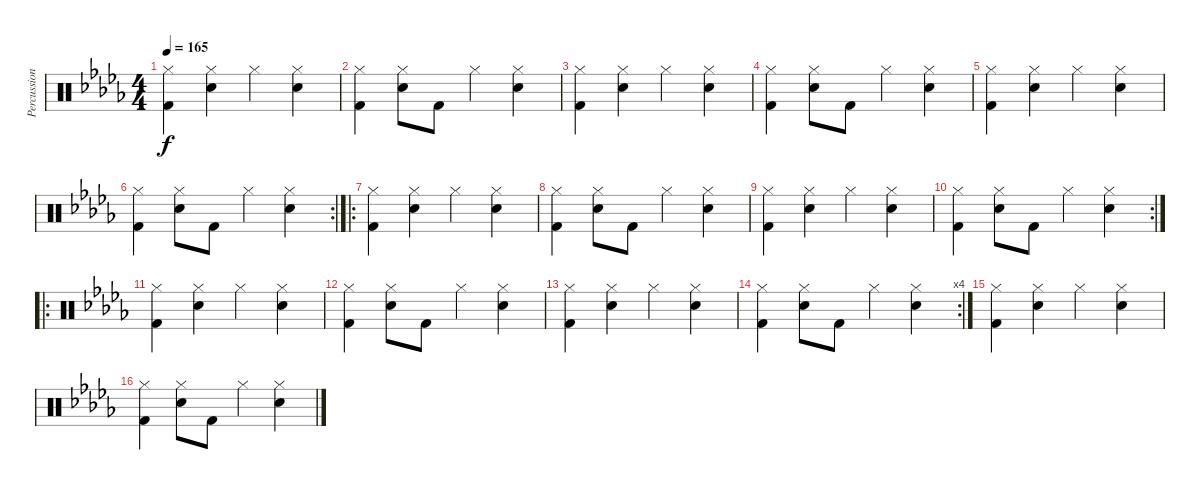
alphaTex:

\track ("Percussion" "Percussion") {instrument percussion}
\staff {score}
\articulation defaults
\ts (4 4)
\tempo 165
\clef neutral
\ks db
("Hi-Hat (closed)" "Kick (hit) 2").4{dy f} ("Hi-Hat (closed)" "Snare (hit) 2").4 "Hi-Hat (closed)".4 ("Hi-Hat (closed)" "Snare (hit) 2").4 |
("Hi-Hat (closed)" "Kick (hit) 2").4 ("Hi-Hat (closed)" "Snare (hit) 2").8 "Kick (hit) 2".8 "Hi-Hat (closed)".4 ("Hi-Hat (closed)" "Snare (hit) 2").4 |
("Hi-Hat (closed)" "Kick (hit) 2").4 ("Hi-Hat (closed)" "Snare (hit) 2").4 "Hi-Hat (closed)".4 ("Hi-Hat (closed)" "Snare (hit) 2").4 |
("Hi-Hat (closed)" "Kick (hit) 2").4 ("Hi-Hat (closed)" "Snare (hit) 2").8 "Kick (hit) 2".8 "Hi-Hat (closed)".4 ("Hi-Hat (closed)" "Snare (hit) 2").4 |
("Hi-Hat (closed)" "Kick (hit) 2").4 ("Hi-Hat (closed)" "Snare (hit) 2").4 "Hi-Hat (closed)".4 ("Hi-Hat (closed)" "Snare (hit) 2").4 |
\rc 2
("Hi-Hat (closed)" "Kick (hit) 2").4 ("Hi-Hat (closed)" "Snare (hit) 2").8 "Kick (hit) 2".8 "Hi-Hat (closed)".4 ("Hi-Hat (closed)" "Snare (hit) 2").4 |
\ro
("Hi-Hat (closed)" "Kick (hit) 2").4 ("Hi-Hat (closed)" "Snare (hit) 2").4 "Hi-Hat (closed)".4 ("Hi-Hat (closed)" "Snare (hit) 2").4 |
("Hi-Hat (closed)" "Kick (hit) 2").4 ("Hi-Hat (closed)" "Snare (hit) 2").8 "Kick (hit) 2".8 "Hi-Hat (closed)".4 ("Hi-Hat (closed)" "Snare (hit) 2").4 |
("Hi-Hat (closed)" "Kick (hit) 2").4 ("Hi-Hat (closed)" "Snare (hit) 2").4 "Hi-Hat (closed)".4 ("Hi-Hat (closed)" "Snare (hit) 2").4 |
\rc 2
("Hi-Hat (closed)" "Kick (hit) 2").4 ("Hi-Hat (closed)" "Snare (hit) 2").8 "Kick (hit) 2".8 "Hi-Hat (closed)".4 ("Hi-Hat (closed)" "Snare (hit) 2").4 |
\ro
("Hi-Hat (closed)" "Kick (hit) 2").4 ("Hi-Hat (closed)" "Snare (hit) 2").4 "Hi-Hat (closed)".4 ("Hi-Hat (closed)" "Snare (hit) 2").4 |
("Hi-Hat (closed)" "Kick (hit) 2").4 ("Hi-Hat (closed)" "Snare (hit) 2").8 "Kick (hit) 2".8 "Hi-Hat (closed)".4 ("Hi-Hat (closed)" "Snare (hit) 2").4 |
("Hi-Hat (closed)" "Kick (hit) 2").4 ("Hi-Hat (closed)" "Snare (hit) 2").4 "Hi-Hat (closed)".4 ("Hi-Hat (closed)" "Snare (hit) 2").4 |
\rc 4
("Hi-Hat (closed)" "Kick (hit) 2").4 ("Hi-Hat (closed)" "Snare (hit) 2").8 "Kick (hit) 2".8 "Hi-Hat (closed)".4 ("Hi-Hat (closed)" "Snare (hit) 2").4 |
("Hi-Hat (closed)" "Kick (hit) 2").4 ("Hi-Hat (closed)" "Snare (hit) 2").4 "Hi-Hat (closed)".4 ("Hi-Hat (closed)" "Snare (hit) 2").4 |
("Hi-Hat (closed)" "Kick (hit) 2").4 ("Hi-Hat (closed)" "Snare (hit) 2").8 "Kick (hit) 2".8 "Hi-Hat (closed)".4 ("Hi-Hat (closed)" "Snare (hit) 2").4
